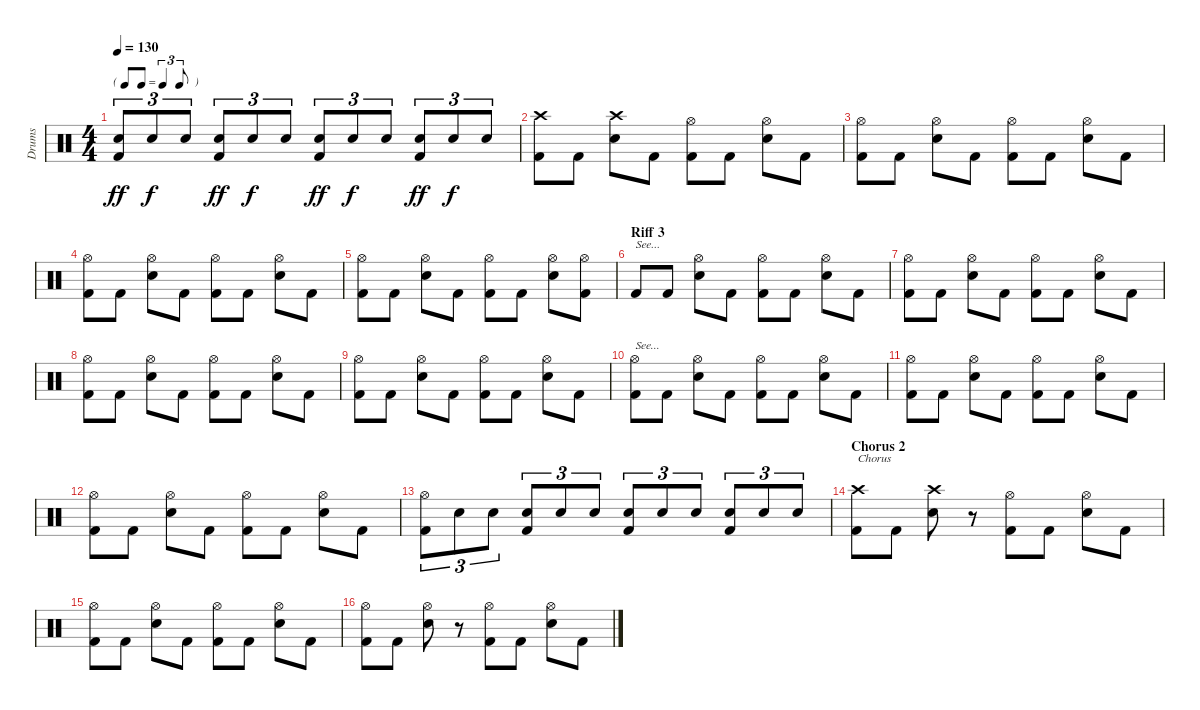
\track ("Drums" "Drums") {instrument percussion}
\staff {score}
\articulation defaults
\ts (4 4)
\tf triplet8th
\tempo 130
\clef neutral
\ks c
("Electric Snare (hit)" "Kick (hit) 2").8{tu (3 2) dy ff} "Electric Snare (hit)".8{tu (3 2) dy f} "Electric Snare (hit)".8{tu (3 2)} ("Electric Snare (hit)" "Kick (hit) 2").8{tu (3 2) dy ff} "Electric Snare (hit)".8{tu (3 2) dy f} "Electric Snare (hit)".8{tu (3 2)} ("Electric Snare (hit)" "Kick (hit) 2").8{tu (3 2) dy ff} "Electric Snare (hit)".8{tu (3 2) dy f} "Electric Snare (hit)".8{tu (3 2)} ("Electric Snare (hit)" "Kick (hit) 2").8{tu (3 2) dy ff} "Electric Snare (hit)".8{tu (3 2) dy f} "Electric Snare (hit)".8{tu (3 2)} |
("Crash high (hit)" "Kick (hit) 2").8 "Kick (hit) 2".8 ("Crash high (hit)" "Electric Snare (hit)").8 "Kick (hit) 2".8 ("Hi-Hat (open)" "Kick (hit) 2").8 "Kick (hit) 2".8 ("Hi-Hat (open)" "Electric Snare (hit)").8 "Kick (hit) 2".8 |
("Hi-Hat (open)" "Kick (hit) 2").8 "Kick (hit) 2".8 ("Hi-Hat (open)" "Electric Snare (hit)").8 "Kick (hit) 2".8 ("Hi-Hat (open)" "Kick (hit) 2").8 "Kick (hit) 2".8 ("Hi-Hat (open)" "Electric Snare (hit)").8 "Kick (hit) 2".8 |
("Hi-Hat (open)" "Kick (hit) 2").8 "Kick (hit) 2".8 ("Hi-Hat (open)" "Electric Snare (hit)").8 "Kick (hit) 2".8 ("Hi-Hat (open)" "Kick (hit) 2").8 "Kick (hit) 2".8 ("Hi-Hat (open)" "Electric Snare (hit)").8 "Kick (hit) 2".8 |
("Hi-Hat (open)" "Kick (hit) 2").8 "Kick (hit) 2".8 ("Hi-Hat (open)" "Electric Snare (hit)").8 "Kick (hit) 2".8 ("Hi-Hat (open)" "Kick (hit) 2").8 "Kick (hit) 2".8 ("Hi-Hat (open)" "Electric Snare (hit)").8 ("Hi-Hat (open)" "Kick (hit) 2").8 |
\section ("" "Riff 3")
"Kick (hit) 2".8{txt "See..."} "Kick (hit) 2".8 ("Hi-Hat (open)" "Electric Snare (hit)").8 "Kick (hit) 2".8 ("Hi-Hat (open)" "Kick (hit) 2").8 "Kick (hit) 2".8 ("Hi-Hat (open)" "Electric Snare (hit)").8 "Kick (hit) 2".8 |
("Hi-Hat (open)" "Kick (hit) 2").8 "Kick (hit) 2".8 ("Hi-Hat (open)" "Electric Snare (hit)").8 "Kick (hit) 2".8 ("Hi-Hat (open)" "Kick (hit) 2").8 "Kick (hit) 2".8 ("Hi-Hat (open)" "Electric Snare (hit)").8 "Kick (hit) 2".8 |
("Hi-Hat (open)" "Kick (hit) 2").8 "Kick (hit) 2".8 ("Hi-Hat (open)" "Electric Snare (hit)").8 "Kick (hit) 2".8 ("Hi-Hat (open)" "Kick (hit) 2").8 "Kick (hit) 2".8 ("Hi-Hat (open)" "Electric Snare (hit)").8 "Kick (hit) 2".8 |
("Hi-Hat (open)" "Kick (hit) 2").8 "Kick (hit) 2".8 ("Hi-Hat (open)" "Electric Snare (hit)").8 "Kick (hit) 2".8 ("Hi-Hat (open)" "Kick (hit) 2").8 "Kick (hit) 2".8 ("Hi-Hat (open)" "Electric Snare (hit)").8 "Kick (hit) 2".8 |
("Hi-Hat (open)" "Kick (hit) 2").8{txt "See..."} "Kick (hit) 2".8 ("Hi-Hat (open)" "Electric Snare (hit)").8 "Kick (hit) 2".8 ("Hi-Hat (open)" "Kick (hit) 2").8 "Kick (hit) 2".8 ("Hi-Hat (open)" "Electric Snare (hit)").8 "Kick (hit) 2".8 |
("Hi-Hat (open)" "Kick (hit) 2").8 "Kick (hit) 2".8 ("Hi-Hat (open)" "Electric Snare (hit)").8 "Kick (hit) 2".8 ("Hi-Hat (open)" "Kick (hit) 2").8 "Kick (hit) 2".8 ("Hi-Hat (open)" "Electric Snare (hit)").8 "Kick (hit) 2".8 |
("Hi-Hat (open)" "Kick (hit) 2").8 "Kick (hit) 2".8 ("Hi-Hat (open)" "Electric Snare (hit)").8 "Kick (hit) 2".8 ("Hi-Hat (open)" "Kick (hit) 2").8 "Kick (hit) 2".8 ("Hi-Hat (open)" "Electric Snare (hit)").8 "Kick (hit) 2".8 |
("Hi-Hat (open)" "Kick (hit) 2").8{tu (3 2)} "Electric Snare (hit)".8{tu (3 2)} "Electric Snare (hit)".8{tu (3 2)} ("Electric Snare (hit)" "Kick (hit) 2").8{tu (3 2)} "Electric Snare (hit)".8{tu (3 2)} "Electric Snare (hit)".8{tu (3 2)} ("Electric Snare (hit)" "Kick (hit) 2").8{tu (3 2)} "Electric Snare (hit)".8{tu (3 2)} "Electric Snare (hit)".8{tu (3 2)} ("Electric Snare (hit)" "Kick (hit) 2").8{tu (3 2)} "Electric Snare (hit)".8{tu (3 2)} "Electric Snare (hit)".8{tu (3 2)} |
\section ("" "Chorus 2")
("Crash high (hit)" "Kick (hit) 2").8{txt "Chorus"} "Kick (hit) 2".8 ("Crash high (hit)" "Electric Snare (hit)").8 r.8 ("Hi-Hat (open)" "Kick (hit) 2").8 "Kick (hit) 2".8 ("Hi-Hat (open)" "Electric Snare (hit)").8 "Kick (hit) 2".8 |
("Hi-Hat (open)" "Kick (hit) 2").8 "Kick (hit) 2".8 ("Hi-Hat (open)" "Electric Snare (hit)").8 "Kick (hit) 2".8 ("Hi-Hat (open)" "Kick (hit) 2").8 "Kick (hit) 2".8 ("Hi-Hat (open)" "Electric Snare (hit)").8 "Kick (hit) 2".8 |
("Hi-Hat (open)" "Kick (hit) 2").8 "Kick (hit) 2".8 ("Hi-Hat (open)" "Electric Snare (hit)").8 r.8 ("Hi-Hat (open)" "Kick (hit) 2").8 "Kick (hit) 2".8 ("Hi-Hat (open)" "Electric Snare (hit)").8 "Kick (hit) 2".8
